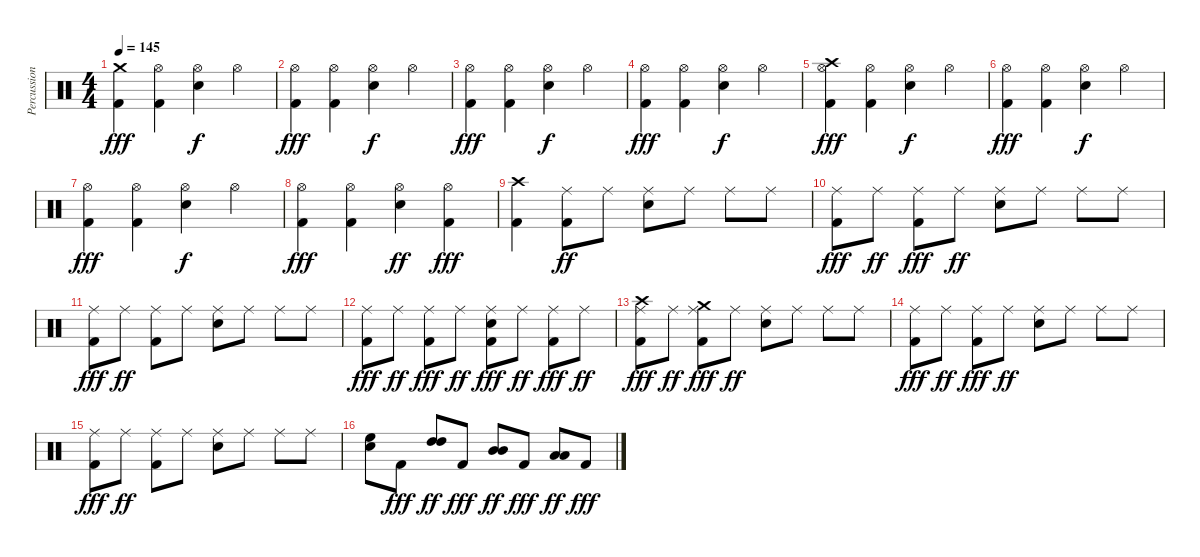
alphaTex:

\track ("Percussion" "Percussion") {instrument percussion}
\staff {score}
\articulation defaults
\ts (4 4)
\tempo 145
\clef neutral
\ks c
("Crash medium (hit)" "Kick (hit) 2").4{dy fff} ("Hi-Hat (open)" "Kick (hit) 2").4 ("Hi-Hat (open)" "Snare (hit) 2").4{dy f} "Hi-Hat (open)".4 |
("Hi-Hat (open)" "Kick (hit) 2").4{dy fff} ("Hi-Hat (open)" "Kick (hit) 2").4 ("Hi-Hat (open)" "Snare (hit) 2").4{dy f} "Hi-Hat (open)".4 |
("Hi-Hat (open)" "Kick (hit) 2").4{dy fff} ("Hi-Hat (open)" "Kick (hit) 2").4 ("Hi-Hat (open)" "Snare (hit) 2").4{dy f} "Hi-Hat (open)".4 |
("Hi-Hat (open)" "Kick (hit) 2").4{dy fff} ("Hi-Hat (open)" "Kick (hit) 2").4 ("Hi-Hat (open)" "Snare (hit) 2").4{dy f} "Hi-Hat (open)".4 |
("Crash high (hit)" "Hi-Hat (open)" "Kick (hit) 2").4{dy fff} ("Hi-Hat (open)" "Kick (hit) 2").4 ("Hi-Hat (open)" "Snare (hit) 2").4{dy f} "Hi-Hat (open)".4 |
("Hi-Hat (open)" "Kick (hit) 2").4{dy fff} ("Hi-Hat (open)" "Kick (hit) 2").4 ("Hi-Hat (open)" "Snare (hit) 2").4{dy f} "Hi-Hat (open)".4 |
("Hi-Hat (open)" "Kick (hit) 2").4{dy fff} ("Hi-Hat (open)" "Kick (hit) 2").4 ("Hi-Hat (open)" "Snare (hit) 2").4{dy f} "Hi-Hat (open)".4 |
("Hi-Hat (open)" "Kick (hit) 2").4{dy fff} ("Hi-Hat (open)" "Kick (hit) 2").4 ("Hi-Hat (open)" "Snare (hit) 2").4{dy ff} ("Hi-Hat (open)" "Kick (hit) 2").4{dy fff} |
("Crash high (hit)" "Kick (hit) 2").4 ("Ride (middle)" "Kick (hit) 2").8{dy ff} "Ride (middle)".8 ("Ride (middle)" "Snare (hit) 2").8 "Ride (middle)".8 "Ride (middle)".8 "Ride (middle)".8 |
("Ride (middle)" "Kick (hit) 2").8{dy fff} "Ride (middle)".8{dy ff} ("Ride (middle)" "Kick (hit) 2").8{dy fff} "Ride (middle)".8{dy ff} ("Ride (middle)" "Snare (hit) 2").8 "Ride (middle)".8 "Ride (middle)".8 "Ride (middle)".8 |
("Ride (middle)" "Kick (hit) 2").8{dy fff} "Ride (middle)".8{dy ff} ("Ride (middle)" "Kick (hit) 2").8 "Ride (middle)".8 ("Ride (middle)" "Snare (hit) 2").8 "Ride (middle)".8 "Ride (middle)".8 "Ride (middle)".8 |
("Ride (middle)" "Kick (hit) 2").8{dy fff} "Ride (middle)".8{dy ff} ("Ride (middle)" "Kick (hit) 2").8{dy fff} "Ride (middle)".8{dy ff} ("Ride (middle)" "Snare (hit) 2" "Kick (hit) 2").8{dy fff} "Ride (middle)".8{dy ff} ("Ride (middle)" "Kick (hit) 2").8{dy fff} "Ride (middle)".8{dy ff} |
("Crash high (hit)" "Ride (middle)" "Kick (hit) 2").8{dy fff} "Ride (middle)".8{dy ff} ("Crash medium (hit)" "Ride (middle)" "Kick (hit) 2").8{dy fff} "Ride (middle)".8{dy ff} ("Ride (middle)" "Snare (hit) 2").8 "Ride (middle)".8 "Ride (middle)".8 "Ride (middle)".8 |
("Ride (middle)" "Kick (hit) 2").8{dy fff} "Ride (middle)".8{dy ff} ("Ride (middle)" "Kick (hit) 2").8{dy fff} "Ride (middle)".8{dy ff} ("Ride (middle)" "Snare (hit) 2").8 "Ride (middle)".8 "Ride (middle)".8 "Ride (middle)".8 |
("Ride (middle)" "Kick (hit) 2").8{dy fff} "Ride (middle)".8{dy ff} ("Ride (middle)" "Kick (hit) 2").8 "Ride (middle)".8 ("Ride (middle)" "Snare (hit) 2").8 "Ride (middle)".8 "Ride (middle)".8 "Ride (middle)".8 |
("High Floor Tom (hit)" "Snare (hit) 2").8{bd 120} "Kick (hit) 2".8{dy fff} ("High Tom (hit)" "High Tom (hit)").8{bd 120 dy ff} "Kick (hit) 2".8{dy fff} ("Mid Tom (hit)" "Mid Tom (hit)").8{bd 120 dy ff} "Kick (hit) 2".8{dy fff} ("Low Tom (hit)" "Low Tom (hit)").8{bd 120 dy ff} "Kick (hit) 2".8{dy fff}
